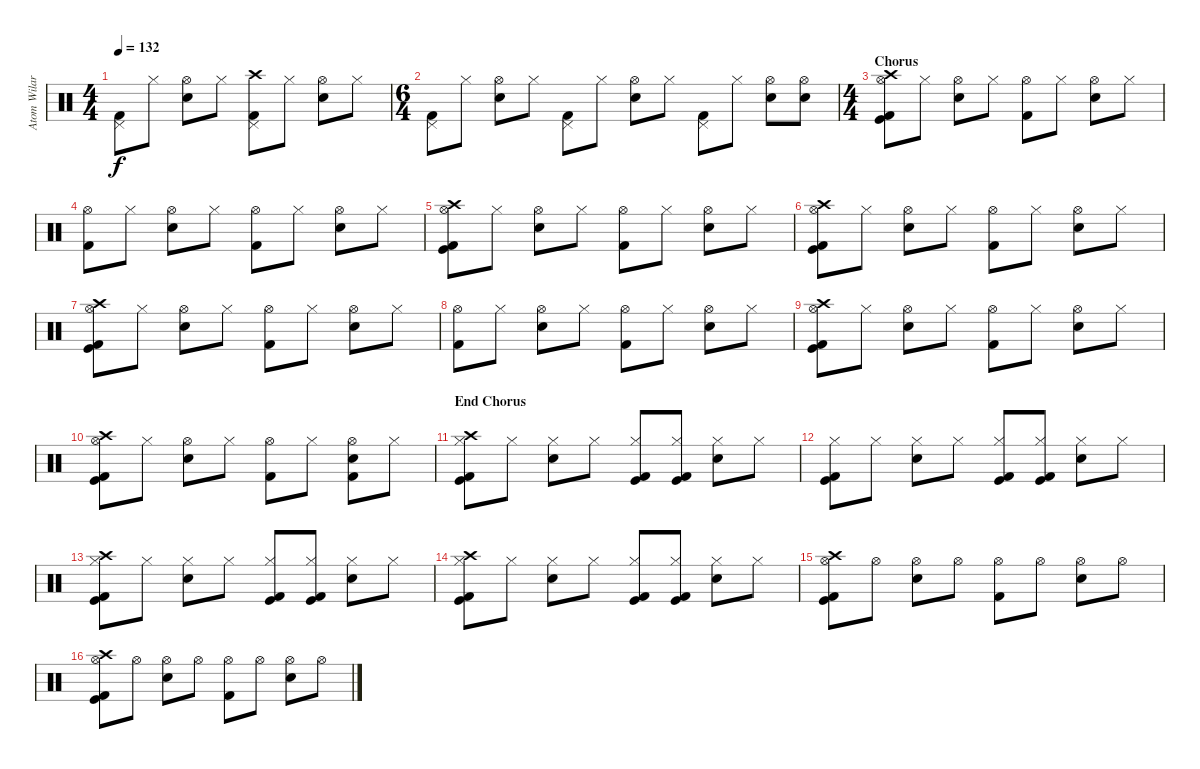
\track ("Atom Wilard or Ron Welty ?" "Atom Wilar") {instrument percussion}
\staff {score}
\articulation defaults
\ts (4 4)
\tempo 132
\clef neutral
\ks c
("Pedal Hi-Hat (hit)" "Kick (hit) 2").8{dy f} "Hi-Hat (closed)".8 ("Hi-Hat (open)" "Electric Snare (hit)").8 "Hi-Hat (closed)".8 ("Pedal Hi-Hat (hit)" "Crash high (hit)" "Kick (hit) 2").8 "Hi-Hat (closed)".8 ("Hi-Hat (open)" "Electric Snare (hit)").8 "Hi-Hat (closed)".8 |
\ts (6 4)
("Pedal Hi-Hat (hit)" "Kick (hit) 2").8 "Hi-Hat (closed)".8 ("Hi-Hat (open)" "Electric Snare (hit)").8 "Hi-Hat (closed)".8 ("Pedal Hi-Hat (hit)" "Kick (hit) 2").8 "Hi-Hat (closed)".8 ("Hi-Hat (open)" "Electric Snare (hit)").8 "Hi-Hat (closed)".8 ("Pedal Hi-Hat (hit)" "Kick (hit) 2").8 "Hi-Hat (closed)".8 ("Hi-Hat (open)" "Electric Snare (hit)").8 ("Hi-Hat (open)" "Electric Snare (hit)").8 |
\ts (4 4)
\section ("" "Chorus")
("Hi-Hat (open)" "Crash high (hit)" "Kick (hit)" "Kick (hit) 2").8 "Hi-Hat (closed)".8 ("Hi-Hat (open)" "Electric Snare (hit)").8 "Hi-Hat (closed)".8 ("Hi-Hat (open)" "Kick (hit) 2").8 "Hi-Hat (closed)".8 ("Hi-Hat (open)" "Electric Snare (hit)").8 "Hi-Hat (closed)".8 |
("Hi-Hat (open)" "Kick (hit) 2").8 "Hi-Hat (closed)".8 ("Hi-Hat (open)" "Electric Snare (hit)").8 "Hi-Hat (closed)".8 ("Hi-Hat (open)" "Kick (hit) 2").8 "Hi-Hat (closed)".8 ("Hi-Hat (open)" "Electric Snare (hit)").8 "Hi-Hat (closed)".8 |
("Hi-Hat (open)" "Crash high (hit)" "Kick (hit)" "Kick (hit) 2").8 "Hi-Hat (closed)".8 ("Hi-Hat (open)" "Electric Snare (hit)").8 "Hi-Hat (closed)".8 ("Hi-Hat (open)" "Kick (hit) 2").8 "Hi-Hat (closed)".8 ("Hi-Hat (open)" "Electric Snare (hit)").8 "Hi-Hat (closed)".8 |
("Hi-Hat (open)" "Crash high (hit)" "Kick (hit)" "Kick (hit) 2").8 "Hi-Hat (closed)".8 ("Hi-Hat (open)" "Electric Snare (hit)").8 "Hi-Hat (closed)".8 ("Hi-Hat (open)" "Kick (hit) 2").8 "Hi-Hat (closed)".8 ("Hi-Hat (open)" "Electric Snare (hit)").8 "Hi-Hat (closed)".8 |
("Hi-Hat (open)" "Crash high (hit)" "Kick (hit)" "Kick (hit) 2").8 "Hi-Hat (closed)".8 ("Hi-Hat (open)" "Electric Snare (hit)").8 "Hi-Hat (closed)".8 ("Hi-Hat (open)" "Kick (hit) 2").8 "Hi-Hat (closed)".8 ("Hi-Hat (open)" "Electric Snare (hit)").8 "Hi-Hat (closed)".8 |
("Hi-Hat (open)" "Kick (hit) 2").8 "Hi-Hat (closed)".8 ("Hi-Hat (open)" "Electric Snare (hit)").8 "Hi-Hat (closed)".8 ("Hi-Hat (open)" "Kick (hit) 2").8 "Hi-Hat (closed)".8 ("Hi-Hat (open)" "Electric Snare (hit)").8 "Hi-Hat (closed)".8 |
("Hi-Hat (open)" "Crash high (hit)" "Kick (hit)" "Kick (hit) 2").8 "Hi-Hat (closed)".8 ("Hi-Hat (open)" "Electric Snare (hit)").8 "Hi-Hat (closed)".8 ("Hi-Hat (open)" "Kick (hit) 2").8 "Hi-Hat (closed)".8 ("Hi-Hat (open)" "Electric Snare (hit)").8 "Hi-Hat (closed)".8 |
("Hi-Hat (open)" "Crash high (hit)" "Kick (hit)" "Kick (hit) 2").8 "Hi-Hat (closed)".8 ("Hi-Hat (open)" "Electric Snare (hit)").8 "Hi-Hat (closed)".8 ("Hi-Hat (open)" "Kick (hit) 2").8 "Hi-Hat (closed)".8 ("Hi-Hat (open)" "Electric Snare (hit)" "Kick (hit) 2").8 "Hi-Hat (closed)".8 |
\section ("" "End Chorus")
("Hi-Hat (closed)" "Crash high (hit)" "Kick (hit)" "Kick (hit) 2").8 "Hi-Hat (closed)".8 ("Hi-Hat (closed)" "Electric Snare (hit)").8 "Hi-Hat (closed)".8 ("Hi-Hat (closed)" "Kick (hit)" "Kick (hit) 2").8 ("Hi-Hat (closed)" "Kick (hit)" "Kick (hit) 2").8 ("Hi-Hat (closed)" "Electric Snare (hit)").8 "Hi-Hat (closed)".8 |
("Hi-Hat (closed)" "Kick (hit)" "Kick (hit) 2").8 "Hi-Hat (closed)".8 ("Hi-Hat (closed)" "Electric Snare (hit)").8 "Hi-Hat (closed)".8 ("Hi-Hat (closed)" "Kick (hit)" "Kick (hit) 2").8 ("Hi-Hat (closed)" "Kick (hit)" "Kick (hit) 2").8 ("Hi-Hat (closed)" "Electric Snare (hit)").8 "Hi-Hat (closed)".8 |
("Hi-Hat (closed)" "Crash high (hit)" "Kick (hit)" "Kick (hit) 2").8 "Hi-Hat (closed)".8 ("Hi-Hat (closed)" "Electric Snare (hit)").8 "Hi-Hat (closed)".8 ("Hi-Hat (closed)" "Kick (hit)" "Kick (hit) 2").8 ("Hi-Hat (closed)" "Kick (hit)" "Kick (hit) 2").8 ("Hi-Hat (closed)" "Electric Snare (hit)").8 "Hi-Hat (closed)".8 |
("Hi-Hat (closed)" "Crash high (hit)" "Kick (hit)" "Kick (hit) 2").8 "Hi-Hat (closed)".8 ("Hi-Hat (closed)" "Electric Snare (hit)").8 "Hi-Hat (closed)".8 ("Hi-Hat (closed)" "Kick (hit)" "Kick (hit) 2").8 ("Hi-Hat (closed)" "Kick (hit)" "Kick (hit) 2").8 ("Hi-Hat (closed)" "Electric Snare (hit)").8 "Hi-Hat (closed)".8 |
("Hi-Hat (open)" "Crash high (hit)" "Kick (hit)" "Kick (hit) 2").8 "Hi-Hat (open)".8 ("Hi-Hat (open)" "Electric Snare (hit)").8 "Hi-Hat (open)".8 ("Hi-Hat (open)" "Kick (hit) 2").8 "Hi-Hat (open)".8 ("Hi-Hat (open)" "Electric Snare (hit)").8 "Hi-Hat (open)".8 |
("Hi-Hat (open)" "Crash high (hit)" "Kick (hit)" "Kick (hit) 2").8 "Hi-Hat (open)".8 ("Hi-Hat (open)" "Electric Snare (hit)").8 "Hi-Hat (open)".8 ("Hi-Hat (open)" "Kick (hit) 2").8 "Hi-Hat (open)".8 ("Hi-Hat (open)" "Electric Snare (hit)").8 "Hi-Hat (open)".8
